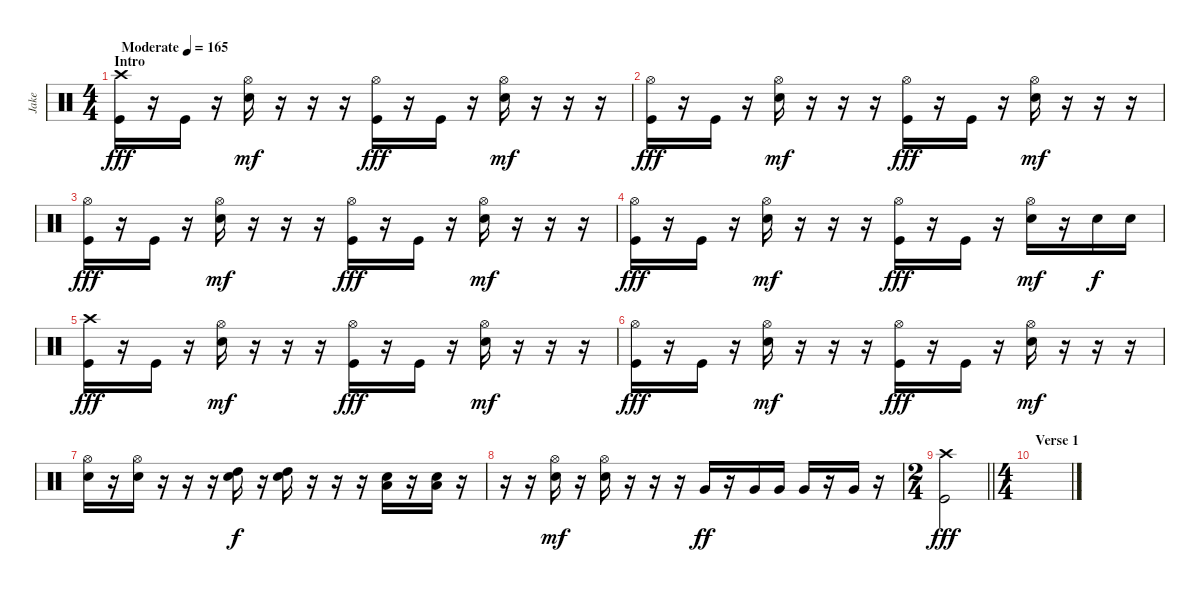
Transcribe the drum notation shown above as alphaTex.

\track ("Jake" "Jake") {instrument percussion}
\staff {score}
\articulation defaults
\ts (4 4)
\section ("" "Intro")
\tempo (165 "Moderate")
\clef neutral
\ks c
("Crash high (hit)" "Kick (hit)").16{dy fff} r.16 "Kick (hit)".16 r.16 ("Hi-Hat (open)" "Electric Snare (hit)").16{dy mf} r.16 r.16 r.16 ("Hi-Hat (open)" "Kick (hit)").16{dy fff} r.16 "Kick (hit)".16 r.16 ("Hi-Hat (open)" "Electric Snare (hit)").16{dy mf} r.16 r.16 r.16 |
("Hi-Hat (open)" "Kick (hit)").16{dy fff} r.16 "Kick (hit)".16 r.16 ("Hi-Hat (open)" "Electric Snare (hit)").16{dy mf} r.16 r.16 r.16 ("Hi-Hat (open)" "Kick (hit)").16{dy fff} r.16 "Kick (hit)".16 r.16 ("Hi-Hat (open)" "Electric Snare (hit)").16{dy mf} r.16 r.16 r.16 |
("Hi-Hat (open)" "Kick (hit)").16{dy fff} r.16 "Kick (hit)".16 r.16 ("Hi-Hat (open)" "Electric Snare (hit)").16{dy mf} r.16 r.16 r.16 ("Hi-Hat (open)" "Kick (hit)").16{dy fff} r.16 "Kick (hit)".16 r.16 ("Hi-Hat (open)" "Electric Snare (hit)").16{dy mf} r.16 r.16 r.16 |
("Hi-Hat (open)" "Kick (hit)").16{dy fff} r.16 "Kick (hit)".16 r.16 ("Hi-Hat (open)" "Electric Snare (hit)").16{dy mf} r.16 r.16 r.16 ("Hi-Hat (open)" "Kick (hit)").16{dy fff} r.16 "Kick (hit)".16 r.16 ("Hi-Hat (open)" "Electric Snare (hit)").16{dy mf} r.16 "Electric Snare (hit)".16{dy f} "Electric Snare (hit)".16 |
("Crash high (hit)" "Kick (hit)").16{dy fff} r.16 "Kick (hit)".16 r.16 ("Hi-Hat (open)" "Electric Snare (hit)").16{dy mf} r.16 r.16 r.16 ("Hi-Hat (open)" "Kick (hit)").16{dy fff} r.16 "Kick (hit)".16 r.16 ("Hi-Hat (open)" "Electric Snare (hit)").16{dy mf} r.16 r.16 r.16 |
("Hi-Hat (open)" "Kick (hit)").16{dy fff} r.16 "Kick (hit)".16 r.16 ("Hi-Hat (open)" "Electric Snare (hit)").16{dy mf} r.16 r.16 r.16 ("Hi-Hat (open)" "Kick (hit)").16{dy fff} r.16 "Kick (hit)".16 r.16 ("Hi-Hat (open)" "Electric Snare (hit)").16{dy mf} r.16 r.16 r.16 |
("Hi-Hat (open)" "Electric Snare (hit)").16 r.16 ("Hi-Hat (open)" "Electric Snare (hit)").16 r.16 r.16 r.16 ("High Tom (hit)" "Electric Snare (hit)").16{dy f} r.16 ("High Tom (hit)" "Electric Snare (hit)").16 r.16 r.16 r.16 ("Low Tom (hit)" "Electric Snare (hit)").16 r.16 ("Low Tom (hit)" "Electric Snare (hit)").16 r.16 |
r.16 r.16 ("Hi-Hat (open)" "Electric Snare (hit)").16{dy mf} r.16 ("Hi-Hat (open)" "Electric Snare (hit)").16 r.16 r.16 r.16 "Very Low Tom (hit)".16{dy ff} r.16 "Very Low Tom (hit)".16 "Very Low Tom (hit)".16 "Very Low Tom (hit)".16 r.16 "Very Low Tom (hit)".16 r.16 |
\ts (2 4)
\barLineRight lightlight
("Crash high (hit)" "Kick (hit)").2{dy fff} |
\ts (4 4)
\section ("" "Verse 1")
